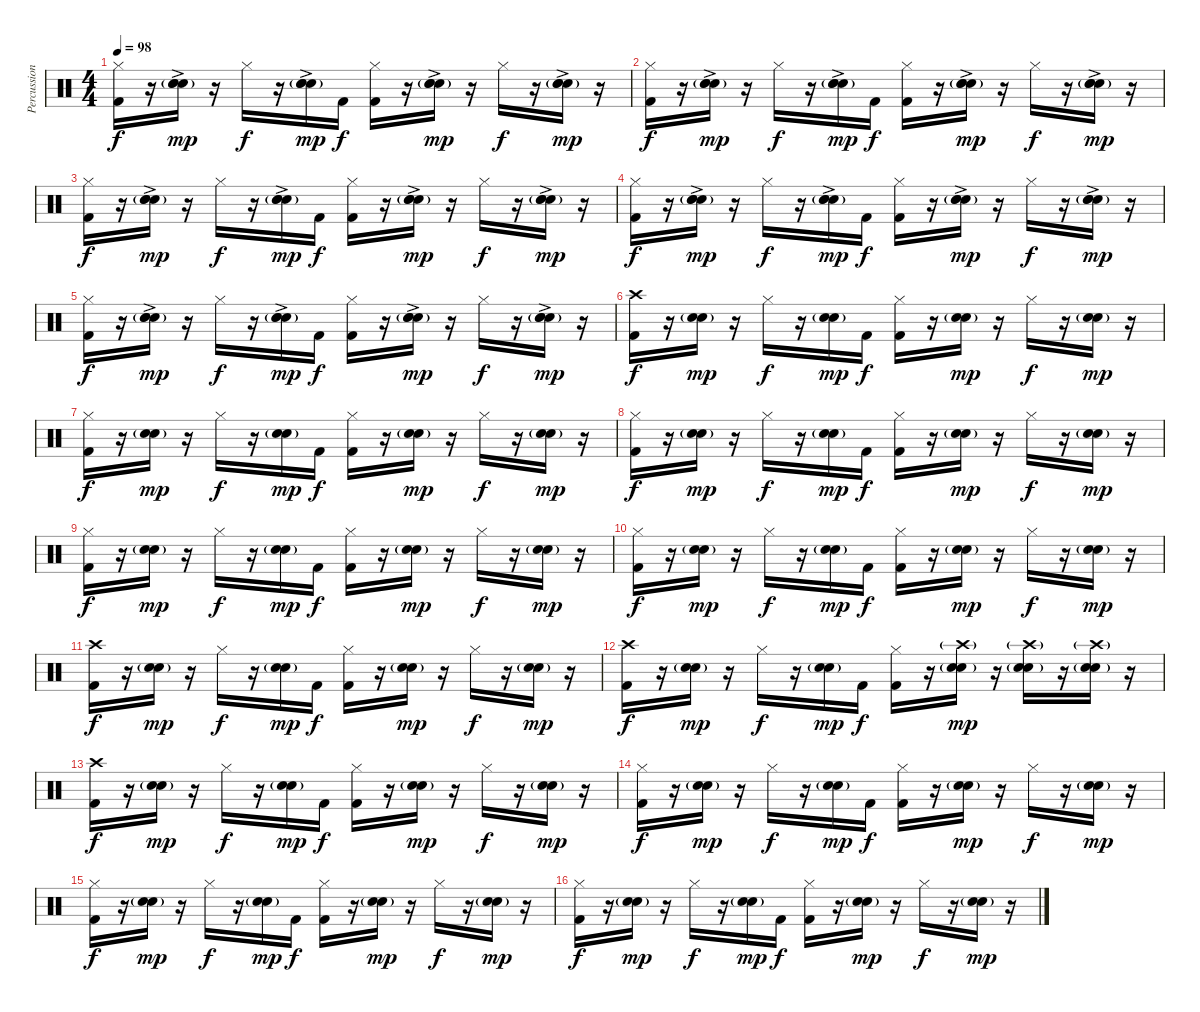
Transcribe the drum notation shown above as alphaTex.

\track ("Percussion" "Percussion") {instrument percussion}
\staff {score}
\articulation defaults
\ts (4 4)
\tempo 98
\clef neutral
\ks c
("Hi-Hat (closed)" "Kick (hit) 2").16{dy f} r.16 ("Snare (hit) 2" "Hand Clap (hit)"{ac} "Electric Snare (hit)"{g}).16{dy mp} r.16 "Hi-Hat (closed)".16{dy f} r.16 ("Snare (hit) 2" "Hand Clap (hit)"{ac} "Electric Snare (hit)"{g}).16{dy mp} "Kick (hit) 2".16{dy f} ("Hi-Hat (closed)" "Kick (hit) 2").16 r.16 ("Snare (hit) 2" "Hand Clap (hit)"{ac} "Electric Snare (hit)"{g}).16{dy mp} r.16 "Hi-Hat (closed)".16{dy f} r.16 ("Snare (hit) 2" "Hand Clap (hit)"{ac} "Electric Snare (hit)"{g}).16{dy mp} r.16 |
("Hi-Hat (closed)" "Kick (hit) 2").16{dy f} r.16 ("Snare (hit) 2" "Hand Clap (hit)"{ac} "Electric Snare (hit)"{g}).16{dy mp} r.16 "Hi-Hat (closed)".16{dy f} r.16 ("Snare (hit) 2" "Hand Clap (hit)"{ac} "Electric Snare (hit)"{g}).16{dy mp} "Kick (hit) 2".16{dy f} ("Hi-Hat (closed)" "Kick (hit) 2").16 r.16 ("Snare (hit) 2" "Hand Clap (hit)"{ac} "Electric Snare (hit)"{g}).16{dy mp} r.16 "Hi-Hat (closed)".16{dy f} r.16 ("Snare (hit) 2" "Hand Clap (hit)"{ac} "Electric Snare (hit)"{g}).16{dy mp} r.16 |
("Hi-Hat (closed)" "Kick (hit) 2").16{dy f} r.16 ("Snare (hit) 2" "Hand Clap (hit)"{ac} "Electric Snare (hit)"{g}).16{dy mp} r.16 "Hi-Hat (closed)".16{dy f} r.16 ("Snare (hit) 2" "Hand Clap (hit)"{ac} "Electric Snare (hit)"{g}).16{dy mp} "Kick (hit) 2".16{dy f} ("Hi-Hat (closed)" "Kick (hit) 2").16 r.16 ("Snare (hit) 2" "Hand Clap (hit)"{ac} "Electric Snare (hit)"{g}).16{dy mp} r.16 "Hi-Hat (closed)".16{dy f} r.16 ("Snare (hit) 2" "Hand Clap (hit)"{ac} "Electric Snare (hit)"{g}).16{dy mp} r.16 |
("Hi-Hat (closed)" "Kick (hit) 2").16{dy f} r.16 ("Snare (hit) 2" "Hand Clap (hit)"{ac} "Electric Snare (hit)"{g}).16{dy mp} r.16 "Hi-Hat (closed)".16{dy f} r.16 ("Snare (hit) 2" "Hand Clap (hit)"{ac} "Electric Snare (hit)"{g}).16{dy mp} "Kick (hit) 2".16{dy f} ("Hi-Hat (closed)" "Kick (hit) 2").16 r.16 ("Snare (hit) 2" "Hand Clap (hit)"{ac} "Electric Snare (hit)"{g}).16{dy mp} r.16 "Hi-Hat (closed)".16{dy f} r.16 ("Snare (hit) 2" "Hand Clap (hit)"{ac} "Electric Snare (hit)"{g}).16{dy mp} r.16 |
("Hi-Hat (closed)" "Kick (hit) 2").16{dy f} r.16 ("Snare (hit) 2" "Hand Clap (hit)"{ac} "Electric Snare (hit)"{g}).16{dy mp} r.16 "Hi-Hat (closed)".16{dy f} r.16 ("Snare (hit) 2" "Hand Clap (hit)"{ac} "Electric Snare (hit)"{g}).16{dy mp} "Kick (hit) 2".16{dy f} ("Hi-Hat (closed)" "Kick (hit) 2").16 r.16 ("Snare (hit) 2" "Hand Clap (hit)"{ac} "Electric Snare (hit)"{g}).16{dy mp} r.16 "Hi-Hat (closed)".16{dy f} r.16 ("Snare (hit) 2" "Hand Clap (hit)"{ac} "Electric Snare (hit)"{g}).16{dy mp} r.16 |
("Crash high (hit)" "Kick (hit) 2").16{dy f} r.16 ("Snare (hit) 2" "Electric Snare (hit)"{g}).16{dy mp} r.16 "Hi-Hat (closed)".16{dy f} r.16 ("Snare (hit) 2" "Electric Snare (hit)"{g}).16{dy mp} "Kick (hit) 2".16{dy f} ("Hi-Hat (closed)" "Kick (hit) 2").16 r.16 ("Snare (hit) 2" "Electric Snare (hit)"{g}).16{dy mp} r.16 "Hi-Hat (closed)".16{dy f} r.16 ("Snare (hit) 2" "Electric Snare (hit)"{g}).16{dy mp} r.16 |
("Hi-Hat (closed)" "Kick (hit) 2").16{dy f} r.16 ("Snare (hit) 2" "Electric Snare (hit)"{g}).16{dy mp} r.16 "Hi-Hat (closed)".16{dy f} r.16 ("Snare (hit) 2" "Electric Snare (hit)"{g}).16{dy mp} "Kick (hit) 2".16{dy f} ("Hi-Hat (closed)" "Kick (hit) 2").16 r.16 ("Snare (hit) 2" "Electric Snare (hit)"{g}).16{dy mp} r.16 "Hi-Hat (closed)".16{dy f} r.16 ("Snare (hit) 2" "Electric Snare (hit)"{g}).16{dy mp} r.16 |
("Hi-Hat (closed)" "Kick (hit) 2").16{dy f} r.16 ("Snare (hit) 2" "Electric Snare (hit)"{g}).16{dy mp} r.16 "Hi-Hat (closed)".16{dy f} r.16 ("Snare (hit) 2" "Electric Snare (hit)"{g}).16{dy mp} "Kick (hit) 2".16{dy f} ("Hi-Hat (closed)" "Kick (hit) 2").16 r.16 ("Snare (hit) 2" "Electric Snare (hit)"{g}).16{dy mp} r.16 "Hi-Hat (closed)".16{dy f} r.16 ("Snare (hit) 2" "Electric Snare (hit)"{g}).16{dy mp} r.16 |
("Hi-Hat (closed)" "Kick (hit) 2").16{dy f} r.16 ("Snare (hit) 2" "Electric Snare (hit)"{g}).16{dy mp} r.16 "Hi-Hat (closed)".16{dy f} r.16 ("Snare (hit) 2" "Electric Snare (hit)"{g}).16{dy mp} "Kick (hit) 2".16{dy f} ("Hi-Hat (closed)" "Kick (hit) 2").16 r.16 ("Snare (hit) 2" "Electric Snare (hit)"{g}).16{dy mp} r.16 "Hi-Hat (closed)".16{dy f} r.16 ("Snare (hit) 2" "Electric Snare (hit)"{g}).16{dy mp} r.16 |
("Hi-Hat (closed)" "Kick (hit) 2").16{dy f} r.16 ("Snare (hit) 2" "Electric Snare (hit)"{g}).16{dy mp} r.16 "Hi-Hat (closed)".16{dy f} r.16 ("Snare (hit) 2" "Electric Snare (hit)"{g}).16{dy mp} "Kick (hit) 2".16{dy f} ("Hi-Hat (closed)" "Kick (hit) 2").16 r.16 ("Snare (hit) 2" "Electric Snare (hit)"{g}).16{dy mp} r.16 "Hi-Hat (closed)".16{dy f} r.16 ("Snare (hit) 2" "Electric Snare (hit)"{g}).16{dy mp} r.16 |
("Crash high (hit)" "Kick (hit) 2").16{dy f} r.16 ("Snare (hit) 2" "Electric Snare (hit)"{g}).16{dy mp} r.16 "Hi-Hat (closed)".16{dy f} r.16 ("Snare (hit) 2" "Electric Snare (hit)"{g}).16{dy mp} "Kick (hit) 2".16{dy f} ("Hi-Hat (closed)" "Kick (hit) 2").16 r.16 ("Snare (hit) 2" "Electric Snare (hit)"{g}).16{dy mp} r.16 "Hi-Hat (closed)".16{dy f} r.16 ("Snare (hit) 2" "Electric Snare (hit)"{g}).16{dy mp} r.16 |
("Crash high (hit)" "Kick (hit) 2").16{dy f} r.16 ("Snare (hit) 2" "Electric Snare (hit)"{g}).16{dy mp} r.16 "Hi-Hat (closed)".16{dy f} r.16 ("Snare (hit) 2" "Electric Snare (hit)"{g}).16{dy mp} "Kick (hit) 2".16{dy f} ("Hi-Hat (closed)" "Kick (hit) 2").16 r.16 ("Snare (hit) 2" "Crash high (hit)"{g} "Electric Snare (hit)"{g}).16{dy mp} r.16 ("Snare (hit) 2" "Crash high (hit)"{g} "Electric Snare (hit)"{g}).16 r.16 ("Snare (hit) 2" "Crash high (hit)"{g} "Electric Snare (hit)"{g}).16 r.16 |
("Crash high (hit)" "Kick (hit) 2").16{dy f} r.16 ("Snare (hit) 2" "Electric Snare (hit)"{g}).16{dy mp} r.16 "Hi-Hat (closed)".16{dy f} r.16 ("Snare (hit) 2" "Electric Snare (hit)"{g}).16{dy mp} "Kick (hit) 2".16{dy f} ("Hi-Hat (closed)" "Kick (hit) 2").16 r.16 ("Snare (hit) 2" "Electric Snare (hit)"{g}).16{dy mp} r.16 "Hi-Hat (closed)".16{dy f} r.16 ("Snare (hit) 2" "Electric Snare (hit)"{g}).16{dy mp} r.16 |
("Hi-Hat (closed)" "Kick (hit) 2").16{dy f} r.16 ("Snare (hit) 2" "Electric Snare (hit)"{g}).16{dy mp} r.16 "Hi-Hat (closed)".16{dy f} r.16 ("Snare (hit) 2" "Electric Snare (hit)"{g}).16{dy mp} "Kick (hit) 2".16{dy f} ("Hi-Hat (closed)" "Kick (hit) 2").16 r.16 ("Snare (hit) 2" "Electric Snare (hit)"{g}).16{dy mp} r.16 "Hi-Hat (closed)".16{dy f} r.16 ("Snare (hit) 2" "Electric Snare (hit)"{g}).16{dy mp} r.16 |
("Hi-Hat (closed)" "Kick (hit) 2").16{dy f} r.16 ("Snare (hit) 2" "Electric Snare (hit)"{g}).16{dy mp} r.16 "Hi-Hat (closed)".16{dy f} r.16 ("Snare (hit) 2" "Electric Snare (hit)"{g}).16{dy mp} "Kick (hit) 2".16{dy f} ("Hi-Hat (closed)" "Kick (hit) 2").16 r.16 ("Snare (hit) 2" "Electric Snare (hit)"{g}).16{dy mp} r.16 "Hi-Hat (closed)".16{dy f} r.16 ("Snare (hit) 2" "Electric Snare (hit)"{g}).16{dy mp} r.16 |
("Hi-Hat (closed)" "Kick (hit) 2").16{dy f} r.16 ("Snare (hit) 2" "Electric Snare (hit)"{g}).16{dy mp} r.16 "Hi-Hat (closed)".16{dy f} r.16 ("Snare (hit) 2" "Electric Snare (hit)"{g}).16{dy mp} "Kick (hit) 2".16{dy f} ("Hi-Hat (closed)" "Kick (hit) 2").16 r.16 ("Snare (hit) 2" "Electric Snare (hit)"{g}).16{dy mp} r.16 "Hi-Hat (closed)".16{dy f} r.16 ("Snare (hit) 2" "Electric Snare (hit)"{g}).16{dy mp} r.16
